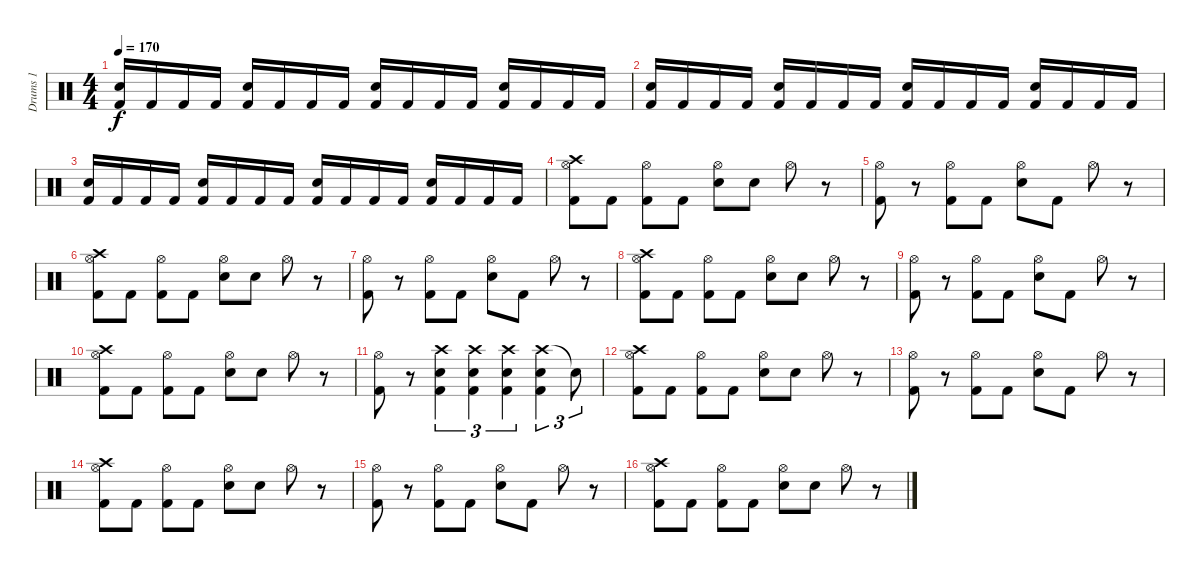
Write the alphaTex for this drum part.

\track ("Drums 1" "Drums 1") {instrument percussion}
\staff {score}
\articulation defaults
\ts (4 4)
\tempo 170
\clef neutral
\ks c
("Snare (hit) 2" "Kick (hit) 2").16{dy f} "Kick (hit) 2".16 "Kick (hit) 2".16 "Kick (hit) 2".16 ("Snare (hit) 2" "Kick (hit) 2").16 "Kick (hit) 2".16 "Kick (hit) 2".16 "Kick (hit) 2".16 ("Snare (hit) 2" "Kick (hit) 2").16 "Kick (hit) 2".16 "Kick (hit) 2".16 "Kick (hit) 2".16 ("Snare (hit) 2" "Kick (hit) 2").16 "Kick (hit) 2".16 "Kick (hit) 2".16 "Kick (hit) 2".16 |
("Snare (hit) 2" "Kick (hit) 2").16 "Kick (hit) 2".16 "Kick (hit) 2".16 "Kick (hit) 2".16 ("Snare (hit) 2" "Kick (hit) 2").16 "Kick (hit) 2".16 "Kick (hit) 2".16 "Kick (hit) 2".16 ("Snare (hit) 2" "Kick (hit) 2").16 "Kick (hit) 2".16 "Kick (hit) 2".16 "Kick (hit) 2".16 ("Snare (hit) 2" "Kick (hit) 2").16 "Kick (hit) 2".16 "Kick (hit) 2".16 "Kick (hit) 2".16 |
("Snare (hit) 2" "Kick (hit) 2").16 "Kick (hit) 2".16 "Kick (hit) 2".16 "Kick (hit) 2".16 ("Snare (hit) 2" "Kick (hit) 2").16 "Kick (hit) 2".16 "Kick (hit) 2".16 "Kick (hit) 2".16 ("Snare (hit) 2" "Kick (hit) 2").16 "Kick (hit) 2".16 "Kick (hit) 2".16 "Kick (hit) 2".16 ("Snare (hit) 2" "Kick (hit) 2").16 "Kick (hit) 2".16 "Kick (hit) 2".16 "Kick (hit) 2".16 |
("Crash high (hit)" "Hi-Hat (open)" "Kick (hit) 2").8 "Kick (hit) 2".8 ("Hi-Hat (open)" "Kick (hit) 2").8 "Kick (hit) 2".8 ("Hi-Hat (open)" "Snare (hit) 2").8 "Snare (hit) 2".8 "Hi-Hat (open)".8 r.8 |
("Hi-Hat (open)" "Kick (hit) 2").8 r.8 ("Hi-Hat (open)" "Kick (hit) 2").8 "Kick (hit) 2".8 ("Hi-Hat (open)" "Snare (hit) 2").8 "Kick (hit) 2".8 "Hi-Hat (open)".8 r.8 |
("Crash high (hit)" "Hi-Hat (open)" "Kick (hit) 2").8 "Kick (hit) 2".8 ("Hi-Hat (open)" "Kick (hit) 2").8 "Kick (hit) 2".8 ("Hi-Hat (open)" "Snare (hit) 2").8 "Snare (hit) 2".8 "Hi-Hat (open)".8 r.8 |
("Hi-Hat (open)" "Kick (hit) 2").8 r.8 ("Hi-Hat (open)" "Kick (hit) 2").8 "Kick (hit) 2".8 ("Hi-Hat (open)" "Snare (hit) 2").8 "Kick (hit) 2".8 "Hi-Hat (open)".8 r.8 |
("Crash high (hit)" "Hi-Hat (open)" "Kick (hit) 2").8 "Kick (hit) 2".8 ("Hi-Hat (open)" "Kick (hit) 2").8 "Kick (hit) 2".8 ("Hi-Hat (open)" "Snare (hit) 2").8 "Snare (hit) 2".8 "Hi-Hat (open)".8 r.8 |
("Hi-Hat (open)" "Kick (hit) 2").8 r.8 ("Hi-Hat (open)" "Kick (hit) 2").8 "Kick (hit) 2".8 ("Hi-Hat (open)" "Snare (hit) 2").8 "Kick (hit) 2".8 "Hi-Hat (open)".8 r.8 |
("Crash high (hit)" "Hi-Hat (open)" "Kick (hit) 2").8 "Kick (hit) 2".8 ("Hi-Hat (open)" "Kick (hit) 2").8 "Kick (hit) 2".8 ("Hi-Hat (open)" "Snare (hit) 2").8 "Snare (hit) 2".8 "Hi-Hat (open)".8 r.8 |
("Hi-Hat (open)" "Kick (hit) 2").8 r.8 ("Crash high (hit)" "Snare (hit) 2" "Kick (hit) 2").4{tu (3 2)} ("Crash high (hit)" "Snare (hit) 2" "Kick (hit) 2").4{tu (3 2)} ("Crash high (hit)" "Snare (hit) 2" "Kick (hit) 2").4{tu (3 2)} ("Crash high (hit)" "Snare (hit) 2" "Kick (hit) 2").4{tu (3 2)} "Snare (hit)"{t}.8{tu (3 2)} |
("Crash high (hit)" "Hi-Hat (open)" "Kick (hit) 2").8 "Kick (hit) 2".8 ("Hi-Hat (open)" "Kick (hit) 2").8 "Kick (hit) 2".8 ("Hi-Hat (open)" "Snare (hit) 2").8 "Snare (hit) 2".8 "Hi-Hat (open)".8 r.8 |
("Hi-Hat (open)" "Kick (hit) 2").8 r.8 ("Hi-Hat (open)" "Kick (hit) 2").8 "Kick (hit) 2".8 ("Hi-Hat (open)" "Snare (hit) 2").8 "Kick (hit) 2".8 "Hi-Hat (open)".8 r.8 |
("Crash high (hit)" "Hi-Hat (open)" "Kick (hit) 2").8 "Kick (hit) 2".8 ("Hi-Hat (open)" "Kick (hit) 2").8 "Kick (hit) 2".8 ("Hi-Hat (open)" "Snare (hit) 2").8 "Snare (hit) 2".8 "Hi-Hat (open)".8 r.8 |
("Hi-Hat (open)" "Kick (hit) 2").8 r.8 ("Hi-Hat (open)" "Kick (hit) 2").8 "Kick (hit) 2".8 ("Hi-Hat (open)" "Snare (hit) 2").8 "Kick (hit) 2".8 "Hi-Hat (open)".8 r.8 |
("Crash high (hit)" "Hi-Hat (open)" "Kick (hit) 2").8 "Kick (hit) 2".8 ("Hi-Hat (open)" "Kick (hit) 2").8 "Kick (hit) 2".8 ("Hi-Hat (open)" "Snare (hit) 2").8 "Snare (hit) 2".8 "Hi-Hat (open)".8 r.8
